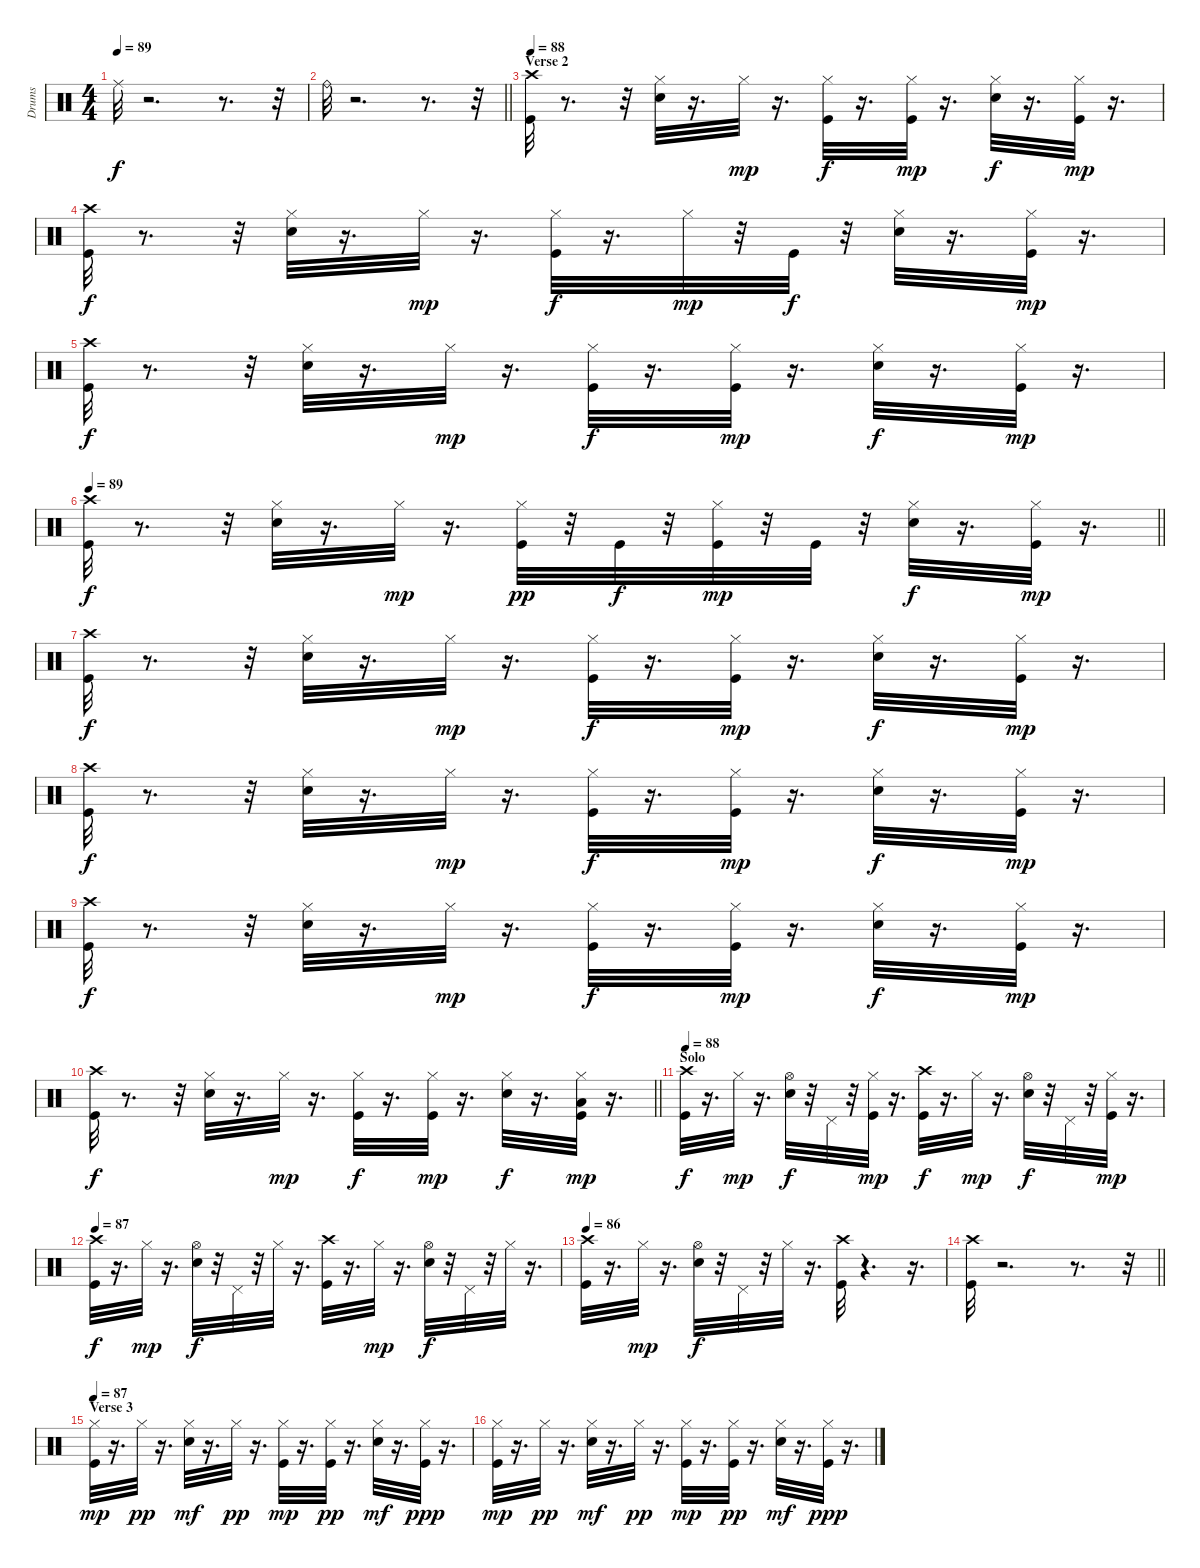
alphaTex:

\track ("Drums" "Drums") {instrument percussion}
\staff {score}
\articulation defaults
\ts (4 4)
\tempo 89
\clef neutral
\ks c "Ride (middle)".32{dy f}
r.2{d} r.8{d} r.32 |
\barLineRight lightlight "Ride (bell)".32
r.2{d} r.8{d} r.32 |
\section ("" "Verse 2")
\tempo 88
("Kick (hit)" "Crash high (hit)").32 r.8{d} r.32 ("Hi-Hat (closed)" "Electric Snare (hit)").32 r.16{d} "Hi-Hat (closed)".32{dy mp} r.16{d} ("Hi-Hat (closed)" "Kick (hit)").32{dy f} r.16{d} ("Hi-Hat (closed)" "Kick (hit)").32{dy mp} r.16{d} ("Electric Snare (hit)" "Hi-Hat (closed)").32{dy f} r.16{d} ("Kick (hit)" "Hi-Hat (closed)").32{dy mp} r.16{d} |
("Kick (hit)" "Crash high (hit)").32{dy f} r.8{d} r.32 ("Electric Snare (hit)" "Hi-Hat (closed)").32 r.16{d} "Hi-Hat (closed)".32{dy mp} r.16{d} ("Hi-Hat (closed)" "Kick (hit)").32{dy f} r.16{d} "Hi-Hat (closed)".32{dy mp} r.32 "Kick (hit)".32{dy f} r.32 ("Electric Snare (hit)" "Hi-Hat (closed)").32 r.16{d} ("Hi-Hat (closed)" "Kick (hit)").32{dy mp} r.16{d} |
("Kick (hit)" "Crash high (hit)").32{dy f} r.8{d} r.32 ("Electric Snare (hit)" "Hi-Hat (closed)").32 r.16{d} "Hi-Hat (closed)".32{dy mp} r.16{d} ("Hi-Hat (closed)" "Kick (hit)").32{dy f} r.16{d} ("Hi-Hat (closed)" "Kick (hit)").32{dy mp} r.16{d} ("Electric Snare (hit)" "Hi-Hat (closed)").32{dy f} r.16{d} ("Hi-Hat (closed)" "Kick (hit)").32{dy mp} r.16{d} |
\tempo 89
\barLineRight lightlight
("Kick (hit)" "Crash high (hit)").32{dy f} r.8{d} r.32 ("Electric Snare (hit)" "Hi-Hat (closed)").32 r.16{d} "Hi-Hat (closed)".32{dy mp} r.16{d} ("Kick (hit)" "Hi-Hat (closed)").32{dy pp} r.32 "Kick (hit)".32{dy f} r.32 ("Kick (hit)" "Hi-Hat (closed)").32{dy mp} r.32 "Kick (hit)".32 r.32 ("Electric Snare (hit)" "Hi-Hat (closed)").32{dy f} r.16{d} ("Hi-Hat (closed)" "Kick (hit)").32{dy mp} r.16{d} |
("Kick (hit)" "Crash high (hit)").32{dy f} r.8{d} r.32 ("Electric Snare (hit)" "Hi-Hat (closed)").32 r.16{d} "Hi-Hat (closed)".32{dy mp} r.16{d} ("Hi-Hat (closed)" "Kick (hit)").32{dy f} r.16{d} ("Hi-Hat (closed)" "Kick (hit)").32{dy mp} r.16{d} ("Electric Snare (hit)" "Hi-Hat (closed)").32{dy f} r.16{d} ("Hi-Hat (closed)" "Kick (hit)").32{dy mp} r.16{d} |
("Kick (hit)" "Crash high (hit)").32{dy f} r.8{d} r.32 ("Electric Snare (hit)" "Hi-Hat (closed)").32 r.16{d} "Hi-Hat (closed)".32{dy mp} r.16{d} ("Hi-Hat (closed)" "Kick (hit)").32{dy f} r.16{d} ("Hi-Hat (closed)" "Kick (hit)").32{dy mp} r.16{d} ("Electric Snare (hit)" "Hi-Hat (closed)").32{dy f} r.16{d} ("Hi-Hat (closed)" "Kick (hit)").32{dy mp} r.16{d} |
("Kick (hit)" "Crash high (hit)").32{dy f} r.8{d} r.32 ("Electric Snare (hit)" "Hi-Hat (closed)").32 r.16{d} "Hi-Hat (closed)".32{dy mp} r.16{d} ("Hi-Hat (closed)" "Kick (hit)").32{dy f} r.16{d} ("Hi-Hat (closed)" "Kick (hit)").32{dy mp} r.16{d} ("Hi-Hat (closed)" "Electric Snare (hit)").32{dy f} r.16{d} ("Hi-Hat (closed)" "Kick (hit)").32{dy mp} r.16{d} |
\barLineRight lightlight
("Kick (hit)" "Crash high (hit)").32{dy f} r.8{d} r.32 ("Electric Snare (hit)" "Hi-Hat (closed)").32 r.16{d} "Hi-Hat (closed)".32{dy mp} r.16{d} ("Hi-Hat (closed)" "Kick (hit)").32{dy f} r.16{d} ("Hi-Hat (closed)" "Kick (hit)").32{dy mp} r.16{d} ("Electric Snare (hit)" "Hi-Hat (closed)").32{dy f} r.16{d} ("Low Floor Tom (hit)" "Hi-Hat (closed)" "Kick (hit)").32{dy mp} r.16{d} |
\section ("" "Solo")
\tempo 88
("Crash high (hit)" "Kick (hit)").32{dy f} r.16{d} "Hi-Hat (closed)".32{dy mp} r.16{d} ("Hi-Hat (open)" "Electric Snare (hit)").32{dy f} r.32 "Pedal Hi-Hat (hit)".32 r.32 ("Kick (hit)" "Hi-Hat (closed)").32{dy mp} r.16{d} ("Kick (hit)" "Crash high (hit)").32{dy f} r.16{d} "Hi-Hat (closed)".32{dy mp} r.16{d} ("Electric Snare (hit)" "Hi-Hat (open)").32{dy f} r.32 "Pedal Hi-Hat (hit)".32 r.32 ("Kick (hit)" "Hi-Hat (closed)").32{dy mp} r.16{d} |
\tempo 87
("Kick (hit)" "Crash high (hit)").32{dy f} r.16{d} "Hi-Hat (closed)".32{dy mp} r.16{d} ("Electric Snare (hit)" "Hi-Hat (open)").32{dy f} r.32 "Pedal Hi-Hat (hit)".32 r.32 "Hi-Hat (closed)".32 r.16{d} ("Kick (hit)" "Crash high (hit)").32 r.16{d} "Hi-Hat (closed)".32{dy mp} r.16{d} ("Electric Snare (hit)" "Hi-Hat (open)").32{dy f} r.32 "Pedal Hi-Hat (hit)".32 r.32 "Hi-Hat (closed)".32 r.16{d} |
\tempo 86
("Kick (hit)" "Crash high (hit)").32 r.16{d} "Hi-Hat (closed)".32{dy mp} r.16{d} ("Electric Snare (hit)" "Hi-Hat (open)").32{dy f} r.32 "Pedal Hi-Hat (hit)".32 r.32 "Hi-Hat (closed)".32 r.16{d} ("Crash high (hit)" "Kick (hit)").32 r.4{d} r.16{d} |
\barLineRight lightlight
("Kick (hit)" "Crash high (hit)").32 r.2{d} r.8{d} r.32 |
\section ("" "Verse 3")
\tempo 87
("Kick (hit)" "Hi-Hat (closed)").32{dy mp} r.16{d} "Hi-Hat (closed)".32{dy pp} r.16{d} ("Hi-Hat (closed)" "Electric Snare (hit)").32{dy mf} r.16{d} "Hi-Hat (closed)".32{dy pp} r.16{d} ("Kick (hit)" "Hi-Hat (closed)").32{dy mp} r.16{d} ("Kick (hit)" "Hi-Hat (closed)").32{dy pp} r.16{d} ("Hi-Hat (closed)" "Electric Snare (hit)").32{dy mf} r.16{d} ("Kick (hit)" "Hi-Hat (closed)").32{dy ppp} r.16{d} |
("Kick (hit)" "Hi-Hat (closed)").32{dy mp} r.16{d} "Hi-Hat (closed)".32{dy pp} r.16{d} ("Hi-Hat (closed)" "Electric Snare (hit)").32{dy mf} r.16{d} "Hi-Hat (closed)".32{dy pp} r.16{d} ("Kick (hit)" "Hi-Hat (closed)").32{dy mp} r.16{d} ("Kick (hit)" "Hi-Hat (closed)").32{dy pp} r.16{d} ("Hi-Hat (closed)" "Electric Snare (hit)").32{dy mf} r.16{d} ("Kick (hit)" "Hi-Hat (closed)").32{dy ppp} r.16{d}
